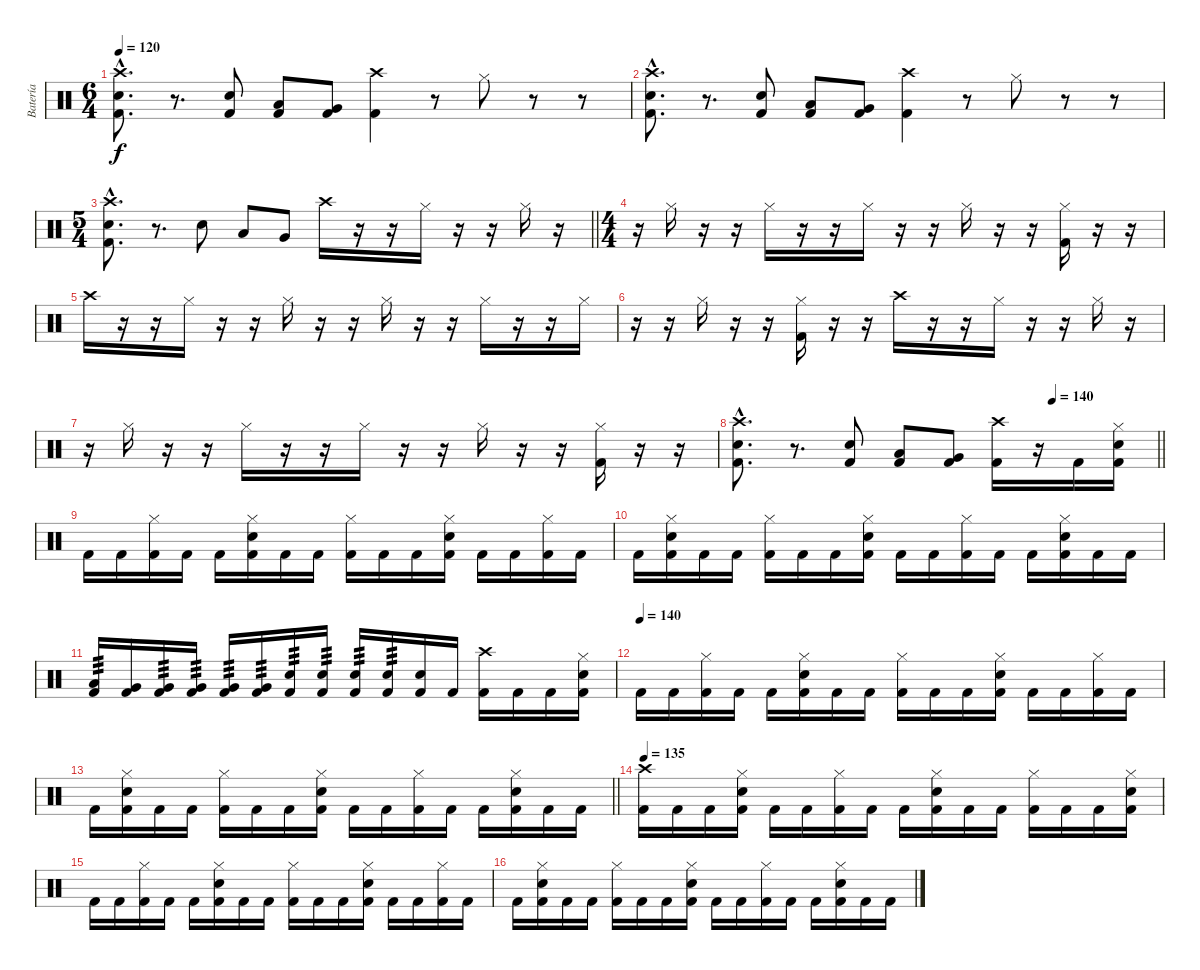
\track ("Batería" "Batería") {instrument percussion}
\staff {score}
\articulation defaults
\ts (6 4)
\tempo 120
\clef neutral
\ks c
("Crash high (hit)"{hac} "Snare (hit) 2"{hac} "Kick (hit) 2"{hac}).8{d dy f} r.8{d} ("Snare (hit) 2" "Kick (hit) 2").8 ("Low Tom (hit)" "Kick (hit) 2").8 ("Very Low Tom (hit)" "Kick (hit) 2").8 ("Crash high (hit)" "Kick (hit) 2").4 r.8 "Hi-Hat (closed)".8 r.8 r.8 |
("Crash high (hit)"{hac} "Snare (hit) 2"{hac} "Kick (hit) 2"{hac}).8{d} r.8{d} ("Snare (hit) 2" "Kick (hit) 2").8 ("Low Tom (hit)" "Kick (hit) 2").8 ("Very Low Tom (hit)" "Kick (hit) 2").8 ("Crash high (hit)" "Kick (hit) 2").4 r.8 "Hi-Hat (closed)".8 r.8 r.8 |
\ts (5 4)
\barLineRight lightlight
("Crash high (hit)"{hac} "Snare (hit) 2"{hac} "Kick (hit) 2"{hac}).8{d} r.8{d} "Snare (hit) 2".8 "Low Tom (hit)".8 "Very Low Tom (hit)".8 "Crash high (hit)".16 r.16 r.16 "Hi-Hat (closed)".16 r.16 r.16 "Hi-Hat (closed)".16 r.16 |
\ts (4 4)
r.16 "Hi-Hat (closed)".16 r.16 r.16 "Hi-Hat (closed)".16 r.16 r.16 "Hi-Hat (closed)".16 r.16 r.16 "Hi-Hat (closed)".16 r.16 r.16 ("Hi-Hat (closed)" "Kick (hit) 2").16 r.16 r.16 |
"Crash high (hit)".16 r.16 r.16 "Hi-Hat (closed)".16 r.16 r.16 "Hi-Hat (closed)".16 r.16 r.16 "Hi-Hat (closed)".16 r.16 r.16 "Hi-Hat (closed)".16 r.16 r.16 "Hi-Hat (closed)".16 |
r.16 r.16 "Hi-Hat (closed)".16 r.16 r.16 ("Hi-Hat (closed)" "Kick (hit) 2").16 r.16 r.16 "Crash high (hit)".16 r.16 r.16 "Hi-Hat (closed)".16 r.16 r.16 "Hi-Hat (closed)".16 r.16 |
r.16 "Hi-Hat (closed)".16 r.16 r.16 "Hi-Hat (closed)".16 r.16 r.16 "Hi-Hat (closed)".16 r.16 r.16 "Hi-Hat (closed)".16 r.16 r.16 ("Hi-Hat (closed)" "Kick (hit) 2").16 r.16 r.16 |
\tempo (140 0.75)
\barLineRight lightlight
("Crash high (hit)"{hac} "Snare (hit) 2"{hac} "Kick (hit) 2"{hac}).8{d} r.8{d} ("Snare (hit) 2" "Kick (hit) 2").8 ("Low Tom (hit)" "Kick (hit) 2").8 ("Very Low Tom (hit)" "Kick (hit) 2").8 ("Crash high (hit)" "Kick (hit) 2").16 r.16 "Kick (hit) 2".16 ("Hi-Hat (closed)" "Snare (hit) 2" "Kick (hit) 2").16 |
"Kick (hit) 2".16 "Kick (hit) 2".16 ("Hi-Hat (closed)" "Kick (hit) 2").16 "Kick (hit) 2".16 "Kick (hit) 2".16 ("Hi-Hat (closed)" "Snare (hit) 2" "Kick (hit) 2").16 "Kick (hit) 2".16 "Kick (hit) 2".16 ("Hi-Hat (closed)" "Kick (hit) 2").16 "Kick (hit) 2".16 "Kick (hit) 2".16 ("Hi-Hat (closed)" "Snare (hit) 2" "Kick (hit) 2").16 "Kick (hit) 2".16 "Kick (hit) 2".16 ("Hi-Hat (closed)" "Kick (hit) 2").16 "Kick (hit) 2".16 |
"Kick (hit) 2".16 ("Hi-Hat (closed)" "Snare (hit) 2" "Kick (hit) 2").16 "Kick (hit) 2".16 "Kick (hit) 2".16 ("Hi-Hat (closed)" "Kick (hit) 2").16 "Kick (hit) 2".16 "Kick (hit) 2".16 ("Hi-Hat (closed)" "Snare (hit) 2" "Kick (hit) 2").16 "Kick (hit) 2".16 "Kick (hit) 2".16 ("Hi-Hat (closed)" "Kick (hit) 2").16 "Kick (hit) 2".16 "Kick (hit) 2".16 ("Hi-Hat (closed)" "Snare (hit) 2" "Kick (hit) 2").16 "Kick (hit) 2".16 "Kick (hit) 2".16 |
("Low Tom (hit)" "Kick (hit) 2").16{tp 3} ("Very Low Tom (hit)" "Kick (hit) 2").16 ("Very Low Tom (hit)" "Kick (hit) 2").16{tp 3} ("Very Low Tom (hit)" "Kick (hit) 2").16{tp 3} ("Very Low Tom (hit)" "Kick (hit) 2").16{tp 3} ("Very Low Tom (hit)" "Kick (hit) 2").16{tp 3} ("Snare (hit) 2" "Kick (hit) 2").16{tp 3} ("Snare (hit) 2" "Kick (hit) 2").16{tp 3} ("Snare (hit) 2" "Kick (hit) 2").16{tp 3} ("Snare (hit) 2" "Kick (hit) 2").16{tp 3} ("Snare (hit) 2"{tr (38 64)} "Kick (hit) 2").16 "Kick (hit) 2"{tr (36 64)}.16 ("Crash high (hit)" "Kick (hit) 2").16 "Kick (hit) 2".16 "Kick (hit) 2".16 ("Hi-Hat (closed)" "Snare (hit) 2" "Kick (hit) 2").16 |
\tempo (140)
"Kick (hit) 2".16 "Kick (hit) 2".16 ("Hi-Hat (closed)" "Kick (hit) 2").16 "Kick (hit) 2".16 "Kick (hit) 2".16 ("Hi-Hat (closed)" "Snare (hit) 2" "Kick (hit) 2").16 "Kick (hit) 2".16 "Kick (hit) 2".16 ("Hi-Hat (closed)" "Kick (hit) 2").16 "Kick (hit) 2".16 "Kick (hit) 2".16 ("Hi-Hat (closed)" "Snare (hit) 2" "Kick (hit) 2").16 "Kick (hit) 2".16 "Kick (hit) 2".16 ("Hi-Hat (closed)" "Kick (hit) 2").16 "Kick (hit) 2".16 |
\barLineRight lightlight "Kick (hit) 2".16
("Hi-Hat (closed)" "Snare (hit) 2" "Kick (hit) 2").16 "Kick (hit) 2".16 "Kick (hit) 2".16 ("Hi-Hat (closed)" "Kick (hit) 2").16 "Kick (hit) 2".16 "Kick (hit) 2".16 ("Hi-Hat (closed)" "Snare (hit) 2" "Kick (hit) 2").16 "Kick (hit) 2".16 "Kick (hit) 2".16 ("Hi-Hat (closed)" "Kick (hit) 2").16 "Kick (hit) 2".16 "Kick (hit) 2".16 ("Hi-Hat (closed)" "Snare (hit) 2" "Kick (hit) 2").16 "Kick (hit) 2".16 "Kick (hit) 2".16 |
\tempo 135
("Crash high (hit)" "Kick (hit) 2").16 "Kick (hit) 2".16 "Kick (hit) 2".16 ("Hi-Hat (closed)" "Snare (hit) 2" "Kick (hit) 2").16 "Kick (hit) 2".16 "Kick (hit) 2".16 ("Hi-Hat (closed)" "Kick (hit) 2").16 "Kick (hit) 2".16 "Kick (hit) 2".16 ("Hi-Hat (closed)" "Snare (hit) 2" "Kick (hit) 2").16 "Kick (hit) 2".16 "Kick (hit) 2".16 ("Hi-Hat (closed)" "Kick (hit) 2").16 "Kick (hit) 2".16 "Kick (hit) 2".16 ("Hi-Hat (closed)" "Snare (hit) 2" "Kick (hit) 2").16 |
"Kick (hit) 2".16 "Kick (hit) 2".16 ("Hi-Hat (closed)" "Kick (hit) 2").16 "Kick (hit) 2".16 "Kick (hit) 2".16 ("Hi-Hat (closed)" "Snare (hit) 2" "Kick (hit) 2").16 "Kick (hit) 2".16 "Kick (hit) 2".16 ("Hi-Hat (closed)" "Kick (hit) 2").16 "Kick (hit) 2".16 "Kick (hit) 2".16 ("Hi-Hat (closed)" "Snare (hit) 2" "Kick (hit) 2").16 "Kick (hit) 2".16 "Kick (hit) 2".16 ("Hi-Hat (closed)" "Kick (hit) 2").16 "Kick (hit) 2".16 |
"Kick (hit) 2".16 ("Hi-Hat (closed)" "Snare (hit) 2" "Kick (hit) 2").16 "Kick (hit) 2".16 "Kick (hit) 2".16 ("Hi-Hat (closed)" "Kick (hit) 2").16 "Kick (hit) 2".16 "Kick (hit) 2".16 ("Hi-Hat (closed)" "Snare (hit) 2" "Kick (hit) 2").16 "Kick (hit) 2".16 "Kick (hit) 2".16 ("Hi-Hat (closed)" "Kick (hit) 2").16 "Kick (hit) 2".16 "Kick (hit) 2".16 ("Hi-Hat (closed)" "Snare (hit) 2" "Kick (hit) 2").16 "Kick (hit) 2".16 "Kick (hit) 2".16
